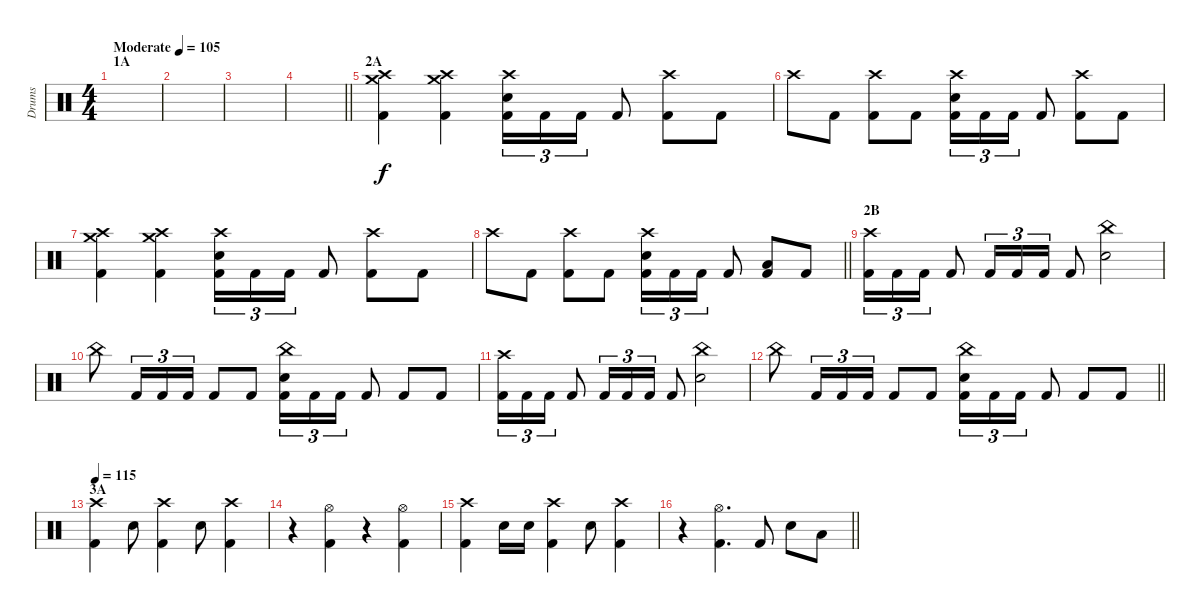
\track ("Drums" "Drums") {instrument percussion}
\staff {score}
\articulation defaults
\ts (4 4)
\section ("" "1A")
\tempo (105 "Moderate")
\clef neutral
\ks c
|
|
|
\barLineRight lightlight
|
\section ("" "2A")
("Crash high (hit)" "Crash medium (hit)" "Kick (hit) 2").4 ("Crash high (hit)" "Crash medium (hit)" "Kick (hit) 2").4 ("Crash high (hit)" "Electric Snare (hit)" "Kick (hit) 2").16{tu (3 2)} "Kick (hit) 2".16{tu (3 2)} "Kick (hit) 2".16{tu (3 2)} "Kick (hit) 2".8 ("Crash high (hit)" "Kick (hit) 2").8 "Kick (hit) 2".8 |
"Crash high (hit)".8 "Kick (hit) 2".8 ("Crash high (hit)" "Kick (hit) 2").8 "Kick (hit) 2".8 ("Crash high (hit)" "Electric Snare (hit)" "Kick (hit) 2").16{tu (3 2)} "Kick (hit) 2".16{tu (3 2)} "Kick (hit) 2".16{tu (3 2)} "Kick (hit) 2".8 ("Crash high (hit)" "Kick (hit) 2").8 "Kick (hit) 2".8 |
("Crash high (hit)" "Crash medium (hit)" "Kick (hit) 2").4 ("Crash high (hit)" "Crash medium (hit)" "Kick (hit) 2").4 ("Crash high (hit)" "Electric Snare (hit)" "Kick (hit) 2").16{tu (3 2)} "Kick (hit) 2".16{tu (3 2)} "Kick (hit) 2".16{tu (3 2)} "Kick (hit) 2".8 ("Crash high (hit)" "Kick (hit) 2").8 "Kick (hit) 2".8 |
\barLineRight lightlight "Crash high (hit)".8 "Kick (hit) 2".8
("Crash high (hit)" "Kick (hit) 2").8 "Kick (hit) 2".8 ("Crash high (hit)" "Electric Snare (hit)" "Kick (hit) 2").16{tu (3 2)} "Kick (hit) 2".16{tu (3 2)} "Kick (hit) 2".16{tu (3 2)} "Kick (hit) 2".8 ("Low Floor Tom (hit)" "Kick (hit) 2").8 "Kick (hit) 2".8 |
\section ("" "2B")
("Crash high (hit)" "Kick (hit) 2").16{tu (3 2)} "Kick (hit) 2".16{tu (3 2)} "Kick (hit) 2".16{tu (3 2)} "Kick (hit) 2".8 "Kick (hit) 2".16{tu (3 2)} "Kick (hit) 2".16{tu (3 2)} "Kick (hit) 2".16{tu (3 2)} "Kick (hit) 2".8 ("China (hit)" "Electric Snare (hit)").2 |
"China (hit)".8 "Kick (hit) 2".16{tu (3 2)} "Kick (hit) 2".16{tu (3 2)} "Kick (hit) 2".16{tu (3 2)} "Kick (hit) 2".8 "Kick (hit) 2".8 ("China (hit)" "Electric Snare (hit)" "Kick (hit) 2").16{tu (3 2)} "Kick (hit) 2".16{tu (3 2)} "Kick (hit) 2".16{tu (3 2)} "Kick (hit) 2".8 "Kick (hit) 2".8 "Kick (hit) 2".8 |
("Crash high (hit)" "Kick (hit) 2").16{tu (3 2)} "Kick (hit) 2".16{tu (3 2)} "Kick (hit) 2".16{tu (3 2)} "Kick (hit) 2".8 "Kick (hit) 2".16{tu (3 2)} "Kick (hit) 2".16{tu (3 2)} "Kick (hit) 2".16{tu (3 2)} "Kick (hit) 2".8 ("China (hit)" "Electric Snare (hit)").2 |
\barLineRight lightlight "China (hit)".8 "Kick (hit) 2".16{tu (3 2)} "Kick (hit) 2".16{tu (3 2)} "Kick (hit) 2".16{tu (3 2)} "Kick (hit) 2".8 "Kick (hit) 2".8
("China (hit)" "Electric Snare (hit)" "Kick (hit) 2").16{tu (3 2)} "Kick (hit) 2".16{tu (3 2)} "Kick (hit) 2".16{tu (3 2)} "Kick (hit) 2".8 "Kick (hit) 2".8 "Kick (hit) 2".8 |
\section ("" "3A")
\tempo 115
("Crash high (hit)" "Kick (hit) 2").4 "Electric Snare (hit)".8 ("Crash high (hit)" "Kick (hit) 2").4 "Electric Snare (hit)".8 ("Crash high (hit)" "Kick (hit) 2").4 |
r.4 ("Hi-Hat (open)" "Kick (hit) 2").4 r.4 ("Hi-Hat (open)" "Kick (hit) 2").4 |
("Crash high (hit)" "Kick (hit) 2").4 "Electric Snare (hit)".16 "Electric Snare (hit)".16 ("Crash high (hit)" "Kick (hit) 2").4 "Electric Snare (hit)".8 ("Crash high (hit)" "Kick (hit) 2").4 |
\barLineRight lightlight
r.4 ("Hi-Hat (open)" "Kick (hit) 2").4{d} "Kick (hit) 2".8 "Electric Snare (hit)".8 "Low Floor Tom (hit)".8
